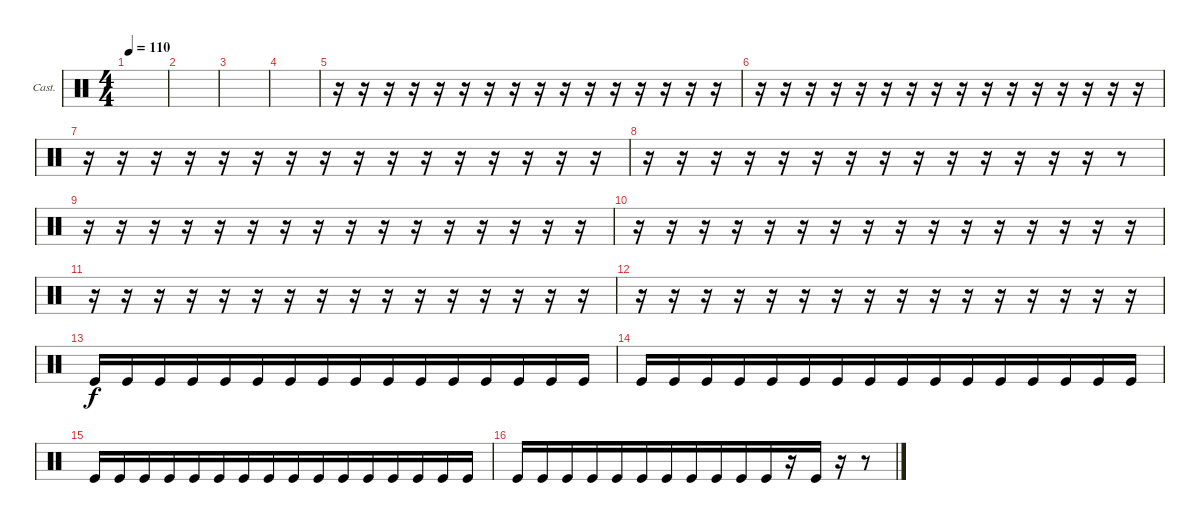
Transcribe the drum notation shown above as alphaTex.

\bracketExtendMode groupsimilarinstruments
\firstSystemTrackNameOrientation horizontal
\otherSystemsTrackNameOrientation horizontal
\track ("Castanets" "Cast.") {instrument percussion}
\staff {score}
\articulation defaults
\ts (4 4)
\beaming (8 8)
\tempo 110
\clef neutral
\ks c
|
|
|
|
r.16 r.16 r.16 r.16 r.16 r.16 r.16 r.16 r.16 r.16 r.16 r.16 r.16 r.16 r.16 r.16 |
r.16 r.16 r.16 r.16 r.16 r.16 r.16 r.16 r.16 r.16 r.16 r.16 r.16 r.16 r.16 r.16 |
r.16 r.16 r.16 r.16 r.16 r.16 r.16 r.16 r.16 r.16 r.16 r.16 r.16 r.16 r.16 r.16 |
r.16 r.16 r.16 r.16 r.16 r.16 r.16 r.16 r.16 r.16 r.16 r.16 r.16 r.16{tp 3} r.8 |
r.16 r.16 r.16 r.16 r.16 r.16 r.16 r.16 r.16 r.16 r.16 r.16 r.16 r.16 r.16 r.16 |
r.16 r.16 r.16 r.16 r.16 r.16 r.16 r.16 r.16 r.16 r.16 r.16 r.16 r.16 r.16 r.16 |
r.16 r.16 r.16 r.16 r.16 r.16 r.16 r.16 r.16 r.16 r.16 r.16 r.16 r.16 r.16 r.16 |
r.16 r.16 r.16 r.16 r.16 r.16 r.16 r.16 r.16 r.16 r.16 r.16 r.16 r.16 r.16 r.16 |
"Kick (hit)".16 "Kick (hit)".16 "Kick (hit)".16 "Kick (hit)".16 "Kick (hit)".16 "Kick (hit)".16 "Kick (hit)".16 "Kick (hit)".16 "Kick (hit)".16 "Kick (hit)".16 "Kick (hit)".16 "Kick (hit)".16 "Kick (hit)".16 "Kick (hit)".16 "Kick (hit)".16 "Kick (hit)".16 |
"Kick (hit)".16 "Kick (hit)".16 "Kick (hit)".16 "Kick (hit)".16 "Kick (hit)".16 "Kick (hit)".16 "Kick (hit)".16 "Kick (hit)".16 "Kick (hit)".16 "Kick (hit)".16 "Kick (hit)".16 "Kick (hit)".16 "Kick (hit)".16 "Kick (hit)".16 "Kick (hit)".16 "Kick (hit)".16 |
"Kick (hit)".16 "Kick (hit)".16 "Kick (hit)".16 "Kick (hit)".16 "Kick (hit)".16 "Kick (hit)".16 "Kick (hit)".16 "Kick (hit)".16 "Kick (hit)".16 "Kick (hit)".16 "Kick (hit)".16 "Kick (hit)".16 "Kick (hit)".16 "Kick (hit)".16 "Kick (hit)".16 "Kick (hit)".16 |
"Kick (hit)".16 "Kick (hit)".16 "Kick (hit)".16 "Kick (hit)".16 "Kick (hit)".16 "Kick (hit)".16 "Kick (hit)".16 "Kick (hit)".16 "Kick (hit)".16 "Kick (hit)".16 "Kick (hit)".16 r.16 "Kick (hit)".16 r.16 r.8
